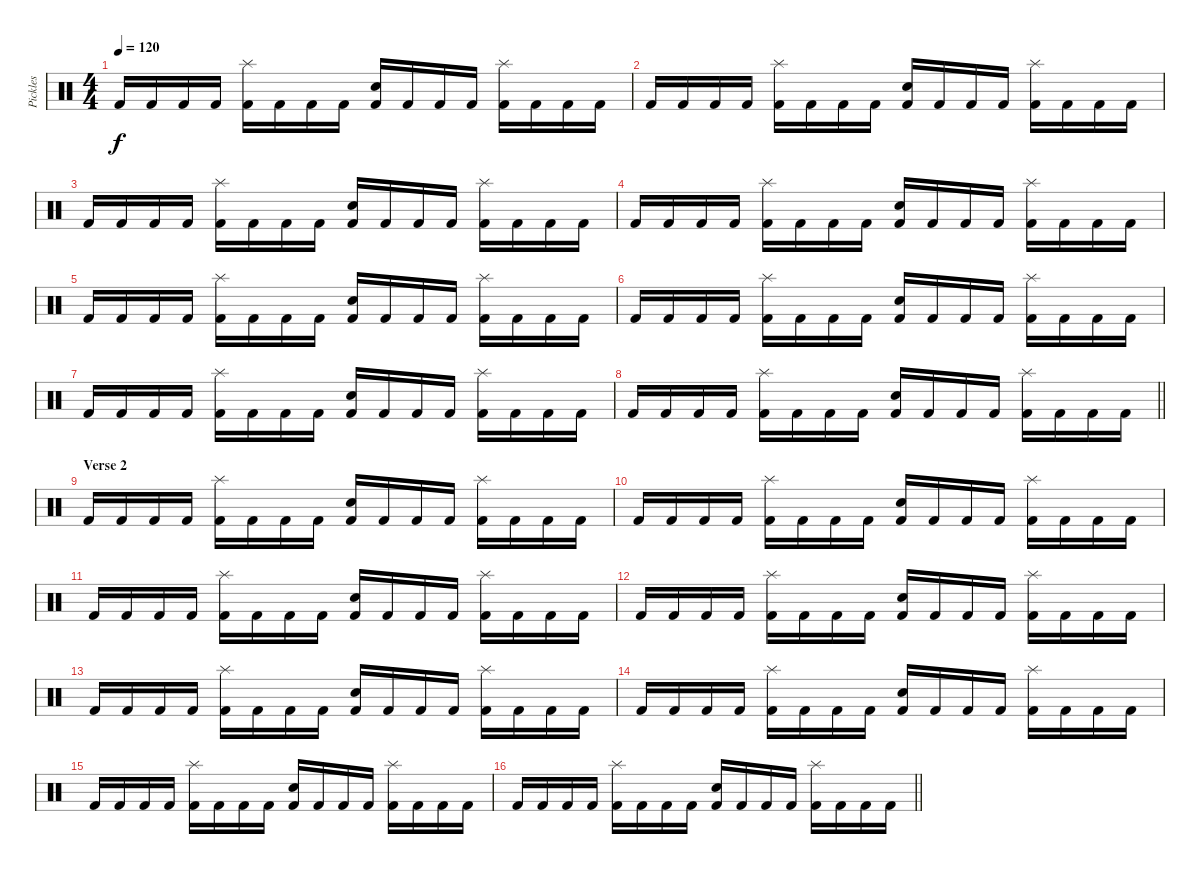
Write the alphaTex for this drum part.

\track ("Pickles" "Pickles") {instrument percussion}
\staff {score}
\articulation defaults
\ts (4 4)
\tempo 120
\clef neutral
\ks c "Kick (hit) 2".16{dy f} "Kick (hit) 2".16 "Kick (hit) 2".16 "Kick (hit) 2".16
("Splash (hit)" "Kick (hit) 2").16 "Kick (hit) 2".16 "Kick (hit) 2".16 "Kick (hit) 2".16 ("Electric Snare (hit)" "Kick (hit) 2").16 "Kick (hit) 2".16 "Kick (hit) 2".16 "Kick (hit) 2".16 ("Splash (hit)" "Kick (hit) 2").16 "Kick (hit) 2".16 "Kick (hit) 2".16 "Kick (hit) 2".16 |
"Kick (hit) 2".16 "Kick (hit) 2".16 "Kick (hit) 2".16 "Kick (hit) 2".16 ("Splash (hit)" "Kick (hit) 2").16 "Kick (hit) 2".16 "Kick (hit) 2".16 "Kick (hit) 2".16 ("Electric Snare (hit)" "Kick (hit) 2").16 "Kick (hit) 2".16 "Kick (hit) 2".16 "Kick (hit) 2".16 ("Splash (hit)" "Kick (hit) 2").16 "Kick (hit) 2".16 "Kick (hit) 2".16 "Kick (hit) 2".16 |
"Kick (hit) 2".16 "Kick (hit) 2".16 "Kick (hit) 2".16 "Kick (hit) 2".16 ("Splash (hit)" "Kick (hit) 2").16 "Kick (hit) 2".16 "Kick (hit) 2".16 "Kick (hit) 2".16 ("Electric Snare (hit)" "Kick (hit) 2").16 "Kick (hit) 2".16 "Kick (hit) 2".16 "Kick (hit) 2".16 ("Splash (hit)" "Kick (hit) 2").16 "Kick (hit) 2".16 "Kick (hit) 2".16 "Kick (hit) 2".16 |
"Kick (hit) 2".16 "Kick (hit) 2".16 "Kick (hit) 2".16 "Kick (hit) 2".16 ("Splash (hit)" "Kick (hit) 2").16 "Kick (hit) 2".16 "Kick (hit) 2".16 "Kick (hit) 2".16 ("Electric Snare (hit)" "Kick (hit) 2").16 "Kick (hit) 2".16 "Kick (hit) 2".16 "Kick (hit) 2".16 ("Splash (hit)" "Kick (hit) 2").16 "Kick (hit) 2".16 "Kick (hit) 2".16 "Kick (hit) 2".16 |
"Kick (hit) 2".16 "Kick (hit) 2".16 "Kick (hit) 2".16 "Kick (hit) 2".16 ("Splash (hit)" "Kick (hit) 2").16 "Kick (hit) 2".16 "Kick (hit) 2".16 "Kick (hit) 2".16 ("Electric Snare (hit)" "Kick (hit) 2").16 "Kick (hit) 2".16 "Kick (hit) 2".16 "Kick (hit) 2".16 ("Splash (hit)" "Kick (hit) 2").16 "Kick (hit) 2".16 "Kick (hit) 2".16 "Kick (hit) 2".16 |
"Kick (hit) 2".16 "Kick (hit) 2".16 "Kick (hit) 2".16 "Kick (hit) 2".16 ("Splash (hit)" "Kick (hit) 2").16 "Kick (hit) 2".16 "Kick (hit) 2".16 "Kick (hit) 2".16 ("Electric Snare (hit)" "Kick (hit) 2").16 "Kick (hit) 2".16 "Kick (hit) 2".16 "Kick (hit) 2".16 ("Splash (hit)" "Kick (hit) 2").16 "Kick (hit) 2".16 "Kick (hit) 2".16 "Kick (hit) 2".16 |
"Kick (hit) 2".16 "Kick (hit) 2".16 "Kick (hit) 2".16 "Kick (hit) 2".16 ("Splash (hit)" "Kick (hit) 2").16 "Kick (hit) 2".16 "Kick (hit) 2".16 "Kick (hit) 2".16 ("Electric Snare (hit)" "Kick (hit) 2").16 "Kick (hit) 2".16 "Kick (hit) 2".16 "Kick (hit) 2".16 ("Splash (hit)" "Kick (hit) 2").16 "Kick (hit) 2".16 "Kick (hit) 2".16 "Kick (hit) 2".16 |
\barLineRight lightlight "Kick (hit) 2".16 "Kick (hit) 2".16 "Kick (hit) 2".16 "Kick (hit) 2".16
("Splash (hit)" "Kick (hit) 2").16 "Kick (hit) 2".16 "Kick (hit) 2".16 "Kick (hit) 2".16 ("Electric Snare (hit)" "Kick (hit) 2").16 "Kick (hit) 2".16 "Kick (hit) 2".16 "Kick (hit) 2".16 ("Splash (hit)" "Kick (hit) 2").16 "Kick (hit) 2".16 "Kick (hit) 2".16 "Kick (hit) 2".16 |
\section ("" "Verse 2")
"Kick (hit) 2".16 "Kick (hit) 2".16 "Kick (hit) 2".16 "Kick (hit) 2".16 ("Splash (hit)" "Kick (hit) 2").16 "Kick (hit) 2".16 "Kick (hit) 2".16 "Kick (hit) 2".16 ("Electric Snare (hit)" "Kick (hit) 2").16 "Kick (hit) 2".16 "Kick (hit) 2".16 "Kick (hit) 2".16 ("Splash (hit)" "Kick (hit) 2").16 "Kick (hit) 2".16 "Kick (hit) 2".16 "Kick (hit) 2".16 |
"Kick (hit) 2".16 "Kick (hit) 2".16 "Kick (hit) 2".16 "Kick (hit) 2".16 ("Splash (hit)" "Kick (hit) 2").16 "Kick (hit) 2".16 "Kick (hit) 2".16 "Kick (hit) 2".16 ("Electric Snare (hit)" "Kick (hit) 2").16 "Kick (hit) 2".16 "Kick (hit) 2".16 "Kick (hit) 2".16 ("Splash (hit)" "Kick (hit) 2").16 "Kick (hit) 2".16 "Kick (hit) 2".16 "Kick (hit) 2".16 |
"Kick (hit) 2".16 "Kick (hit) 2".16 "Kick (hit) 2".16 "Kick (hit) 2".16 ("Splash (hit)" "Kick (hit) 2").16 "Kick (hit) 2".16 "Kick (hit) 2".16 "Kick (hit) 2".16 ("Electric Snare (hit)" "Kick (hit) 2").16 "Kick (hit) 2".16 "Kick (hit) 2".16 "Kick (hit) 2".16 ("Splash (hit)" "Kick (hit) 2").16 "Kick (hit) 2".16 "Kick (hit) 2".16 "Kick (hit) 2".16 |
"Kick (hit) 2".16 "Kick (hit) 2".16 "Kick (hit) 2".16 "Kick (hit) 2".16 ("Splash (hit)" "Kick (hit) 2").16 "Kick (hit) 2".16 "Kick (hit) 2".16 "Kick (hit) 2".16 ("Electric Snare (hit)" "Kick (hit) 2").16 "Kick (hit) 2".16 "Kick (hit) 2".16 "Kick (hit) 2".16 ("Splash (hit)" "Kick (hit) 2").16 "Kick (hit) 2".16 "Kick (hit) 2".16 "Kick (hit) 2".16 |
"Kick (hit) 2".16 "Kick (hit) 2".16 "Kick (hit) 2".16 "Kick (hit) 2".16 ("Splash (hit)" "Kick (hit) 2").16 "Kick (hit) 2".16 "Kick (hit) 2".16 "Kick (hit) 2".16 ("Electric Snare (hit)" "Kick (hit) 2").16 "Kick (hit) 2".16 "Kick (hit) 2".16 "Kick (hit) 2".16 ("Splash (hit)" "Kick (hit) 2").16 "Kick (hit) 2".16 "Kick (hit) 2".16 "Kick (hit) 2".16 |
"Kick (hit) 2".16 "Kick (hit) 2".16 "Kick (hit) 2".16 "Kick (hit) 2".16 ("Splash (hit)" "Kick (hit) 2").16 "Kick (hit) 2".16 "Kick (hit) 2".16 "Kick (hit) 2".16 ("Electric Snare (hit)" "Kick (hit) 2").16 "Kick (hit) 2".16 "Kick (hit) 2".16 "Kick (hit) 2".16 ("Splash (hit)" "Kick (hit) 2").16 "Kick (hit) 2".16 "Kick (hit) 2".16 "Kick (hit) 2".16 |
"Kick (hit) 2".16 "Kick (hit) 2".16 "Kick (hit) 2".16 "Kick (hit) 2".16 ("Splash (hit)" "Kick (hit) 2").16 "Kick (hit) 2".16 "Kick (hit) 2".16 "Kick (hit) 2".16 ("Electric Snare (hit)" "Kick (hit) 2").16 "Kick (hit) 2".16 "Kick (hit) 2".16 "Kick (hit) 2".16 ("Splash (hit)" "Kick (hit) 2").16 "Kick (hit) 2".16 "Kick (hit) 2".16 "Kick (hit) 2".16 |
\barLineRight lightlight "Kick (hit) 2".16 "Kick (hit) 2".16 "Kick (hit) 2".16 "Kick (hit) 2".16
("Splash (hit)" "Kick (hit) 2").16 "Kick (hit) 2".16 "Kick (hit) 2".16 "Kick (hit) 2".16 ("Electric Snare (hit)" "Kick (hit) 2").16 "Kick (hit) 2".16 "Kick (hit) 2".16 "Kick (hit) 2".16 ("Splash (hit)" "Kick (hit) 2").16 "Kick (hit) 2".16 "Kick (hit) 2".16 "Kick (hit) 2".16
